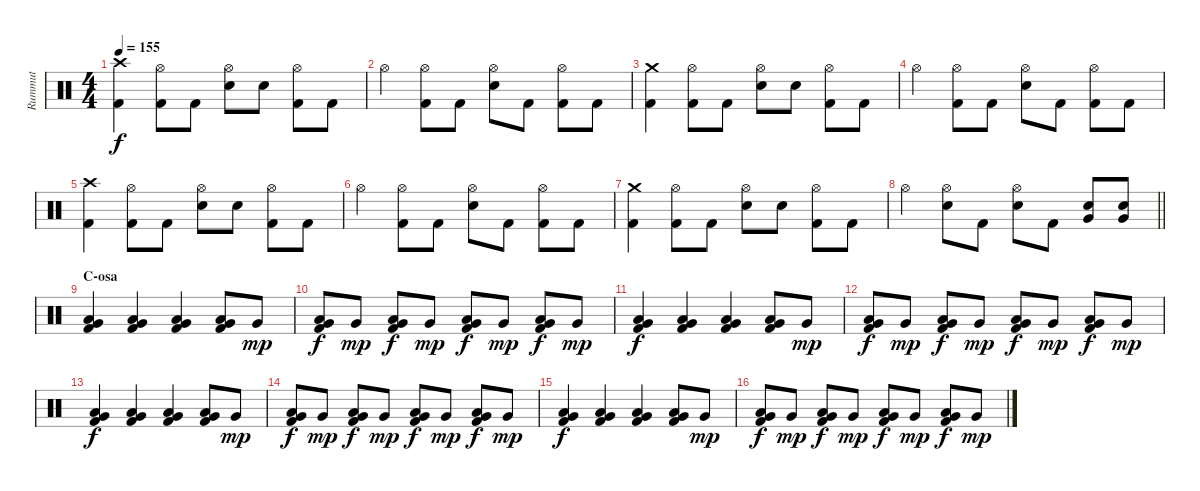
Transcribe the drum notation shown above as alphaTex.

\track ("Rummut" "Rummut") {instrument percussion}
\staff {score}
\articulation defaults
\ts (4 4)
\tempo 155
\clef neutral
\ks c
("Crash high (hit)" "Kick (hit) 2").4{dy f} ("Hi-Hat (open)" "Kick (hit) 2").8 "Kick (hit) 2".8 ("Hi-Hat (open)" "Electric Snare (hit)").8 "Electric Snare (hit)".8 ("Hi-Hat (open)" "Kick (hit) 2").8 "Kick (hit) 2".8 |
"Hi-Hat (open)".4 ("Hi-Hat (open)" "Kick (hit) 2").8 "Kick (hit) 2".8 ("Hi-Hat (open)" "Electric Snare (hit)").8 "Kick (hit) 2".8 ("Hi-Hat (open)" "Kick (hit) 2").8 "Kick (hit) 2".8 |
("Crash medium (hit)" "Kick (hit) 2").4 ("Hi-Hat (open)" "Kick (hit) 2").8 "Kick (hit) 2".8 ("Hi-Hat (open)" "Electric Snare (hit)").8 "Electric Snare (hit)".8 ("Hi-Hat (open)" "Kick (hit) 2").8 "Kick (hit) 2".8 |
"Hi-Hat (open)".4 ("Hi-Hat (open)" "Kick (hit) 2").8 "Kick (hit) 2".8 ("Hi-Hat (open)" "Electric Snare (hit)").8 "Kick (hit) 2".8 ("Hi-Hat (open)" "Kick (hit) 2").8 "Kick (hit) 2".8 |
("Crash high (hit)" "Kick (hit) 2").4 ("Hi-Hat (open)" "Kick (hit) 2").8 "Kick (hit) 2".8 ("Hi-Hat (open)" "Electric Snare (hit)").8 "Electric Snare (hit)".8 ("Hi-Hat (open)" "Kick (hit) 2").8 "Kick (hit) 2".8 |
"Hi-Hat (open)".4 ("Hi-Hat (open)" "Kick (hit) 2").8 "Kick (hit) 2".8 ("Hi-Hat (open)" "Electric Snare (hit)").8 "Kick (hit) 2".8 ("Hi-Hat (open)" "Kick (hit) 2").8 "Kick (hit) 2".8 |
("Crash medium (hit)" "Kick (hit) 2").4 ("Hi-Hat (open)" "Kick (hit) 2").8 "Kick (hit) 2".8 ("Hi-Hat (open)" "Electric Snare (hit)").8 "Electric Snare (hit)".8 ("Hi-Hat (open)" "Kick (hit) 2").8 "Kick (hit) 2".8 |
\barLineRight lightlight "Hi-Hat (open)".4
("Hi-Hat (open)" "Electric Snare (hit)").8 "Kick (hit) 2".8 ("Hi-Hat (open)" "Electric Snare (hit)").8 "Kick (hit) 2".8 ("Very Low Tom (hit)" "Electric Snare (hit)").8 ("Very Low Tom (hit)" "Electric Snare (hit)").8 |
\section ("" "C-osa")
("Low Tom (hit)" "Very Low Tom (hit)" "Kick (hit) 2").4 ("Low Tom (hit)" "Very Low Tom (hit)" "Kick (hit) 2").4 ("Low Tom (hit)" "Very Low Tom (hit)" "Kick (hit) 2").4 ("Low Tom (hit)" "Very Low Tom (hit)" "Kick (hit) 2").8 "Very Low Tom (hit)".8{dy mp} |
("Low Tom (hit)" "Very Low Tom (hit)" "Kick (hit) 2").8{dy f} "Very Low Tom (hit)".8{dy mp} ("Low Tom (hit)" "Very Low Tom (hit)" "Kick (hit) 2").8{dy f} "Very Low Tom (hit)".8{dy mp} ("Low Tom (hit)" "Very Low Tom (hit)" "Kick (hit) 2").8{dy f} "Very Low Tom (hit)".8{dy mp} ("Low Tom (hit)" "Very Low Tom (hit)" "Kick (hit) 2").8{dy f} "Very Low Tom (hit)".8{dy mp} |
("Low Tom (hit)" "Very Low Tom (hit)" "Kick (hit) 2").4{dy f} ("Low Tom (hit)" "Very Low Tom (hit)" "Kick (hit) 2").4 ("Low Tom (hit)" "Very Low Tom (hit)" "Kick (hit) 2").4 ("Low Tom (hit)" "Very Low Tom (hit)" "Kick (hit) 2").8 "Very Low Tom (hit)".8{dy mp} |
("Low Tom (hit)" "Very Low Tom (hit)" "Kick (hit) 2").8{dy f} "Very Low Tom (hit)".8{dy mp} ("Low Tom (hit)" "Very Low Tom (hit)" "Kick (hit) 2").8{dy f} "Very Low Tom (hit)".8{dy mp} ("Low Tom (hit)" "Very Low Tom (hit)" "Kick (hit) 2").8{dy f} "Very Low Tom (hit)".8{dy mp} ("Low Tom (hit)" "Very Low Tom (hit)" "Kick (hit) 2").8{dy f} "Very Low Tom (hit)".8{dy mp} |
("Low Tom (hit)" "Very Low Tom (hit)" "Kick (hit) 2").4{dy f} ("Low Tom (hit)" "Very Low Tom (hit)" "Kick (hit) 2").4 ("Low Tom (hit)" "Very Low Tom (hit)" "Kick (hit) 2").4 ("Low Tom (hit)" "Very Low Tom (hit)" "Kick (hit) 2").8 "Very Low Tom (hit)".8{dy mp} |
("Low Tom (hit)" "Very Low Tom (hit)" "Kick (hit) 2").8{dy f} "Very Low Tom (hit)".8{dy mp} ("Low Tom (hit)" "Very Low Tom (hit)" "Kick (hit) 2").8{dy f} "Very Low Tom (hit)".8{dy mp} ("Low Tom (hit)" "Very Low Tom (hit)" "Kick (hit) 2").8{dy f} "Very Low Tom (hit)".8{dy mp} ("Low Tom (hit)" "Very Low Tom (hit)" "Kick (hit) 2").8{dy f} "Very Low Tom (hit)".8{dy mp} |
("Low Tom (hit)" "Very Low Tom (hit)" "Kick (hit) 2").4{dy f} ("Low Tom (hit)" "Very Low Tom (hit)" "Kick (hit) 2").4 ("Low Tom (hit)" "Very Low Tom (hit)" "Kick (hit) 2").4 ("Low Tom (hit)" "Very Low Tom (hit)" "Kick (hit) 2").8 "Very Low Tom (hit)".8{dy mp} |
("Low Tom (hit)" "Very Low Tom (hit)" "Kick (hit) 2").8{dy f} "Very Low Tom (hit)".8{dy mp} ("Low Tom (hit)" "Very Low Tom (hit)" "Kick (hit) 2").8{dy f} "Very Low Tom (hit)".8{dy mp} ("Low Tom (hit)" "Very Low Tom (hit)" "Kick (hit) 2").8{dy f} "Very Low Tom (hit)".8{dy mp} ("Low Tom (hit)" "Very Low Tom (hit)" "Kick (hit) 2").8{dy f} "Very Low Tom (hit)".8{dy mp}
